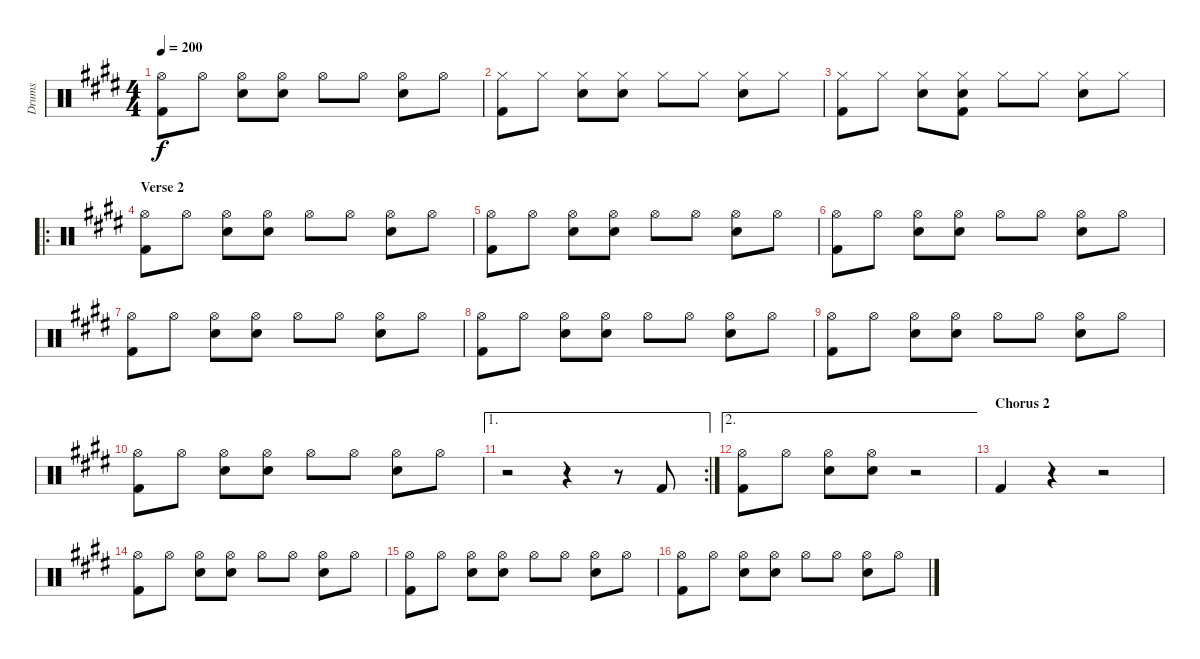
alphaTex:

\track ("Drums" "Drums") {instrument percussion}
\staff {score}
\articulation defaults
\ts (4 4)
\tempo 200
\clef neutral
\ks e
("Hi-Hat (open)" "Kick (hit) 2").8{dy f} "Hi-Hat (open)".8 ("Hi-Hat (open)" "Snare (hit) 2").8 ("Hi-Hat (open)" "Snare (hit) 2").8 "Hi-Hat (open)".8 "Hi-Hat (open)".8 ("Hi-Hat (open)" "Snare (hit) 2").8 "Hi-Hat (open)".8 |
("Hi-Hat (closed)" "Kick (hit) 2").8 "Hi-Hat (closed)".8 ("Hi-Hat (closed)" "Snare (hit) 2").8 ("Hi-Hat (closed)" "Snare (hit) 2").8 "Hi-Hat (closed)".8 "Hi-Hat (closed)".8 ("Hi-Hat (closed)" "Snare (hit) 2").8 "Hi-Hat (closed)".8 |
("Hi-Hat (closed)" "Kick (hit) 2").8 "Hi-Hat (closed)".8 ("Hi-Hat (closed)" "Snare (hit) 2").8 ("Hi-Hat (closed)" "Snare (hit) 2" "Kick (hit) 2").8 "Hi-Hat (closed)".8 "Hi-Hat (closed)".8 ("Hi-Hat (closed)" "Snare (hit) 2").8 "Hi-Hat (closed)".8 |
\ro
\section ("" "Verse 2")
("Hi-Hat (open)" "Kick (hit) 2").8 "Hi-Hat (open)".8 ("Hi-Hat (open)" "Snare (hit) 2").8 ("Hi-Hat (open)" "Snare (hit) 2").8 "Hi-Hat (open)".8 "Hi-Hat (open)".8 ("Hi-Hat (open)" "Snare (hit) 2").8 "Hi-Hat (open)".8 |
("Hi-Hat (open)" "Kick (hit) 2").8 "Hi-Hat (open)".8 ("Hi-Hat (open)" "Snare (hit) 2").8 ("Hi-Hat (open)" "Snare (hit) 2").8 "Hi-Hat (open)".8 "Hi-Hat (open)".8 ("Hi-Hat (open)" "Snare (hit) 2").8 "Hi-Hat (open)".8 |
("Hi-Hat (open)" "Kick (hit) 2").8 "Hi-Hat (open)".8 ("Hi-Hat (open)" "Snare (hit) 2").8 ("Hi-Hat (open)" "Snare (hit) 2").8 "Hi-Hat (open)".8 "Hi-Hat (open)".8 ("Hi-Hat (open)" "Snare (hit) 2").8 "Hi-Hat (open)".8 |
("Hi-Hat (open)" "Kick (hit) 2").8 "Hi-Hat (open)".8 ("Hi-Hat (open)" "Snare (hit) 2").8 ("Hi-Hat (open)" "Snare (hit) 2").8 "Hi-Hat (open)".8 "Hi-Hat (open)".8 ("Hi-Hat (open)" "Snare (hit) 2").8 "Hi-Hat (open)".8 |
("Hi-Hat (open)" "Kick (hit) 2").8 "Hi-Hat (open)".8 ("Hi-Hat (open)" "Snare (hit) 2").8 ("Hi-Hat (open)" "Snare (hit) 2").8 "Hi-Hat (open)".8 "Hi-Hat (open)".8 ("Hi-Hat (open)" "Snare (hit) 2").8 "Hi-Hat (open)".8 |
("Hi-Hat (open)" "Kick (hit) 2").8 "Hi-Hat (open)".8 ("Hi-Hat (open)" "Snare (hit) 2").8 ("Hi-Hat (open)" "Snare (hit) 2").8 "Hi-Hat (open)".8 "Hi-Hat (open)".8 ("Hi-Hat (open)" "Snare (hit) 2").8 "Hi-Hat (open)".8 |
("Hi-Hat (open)" "Kick (hit) 2").8 "Hi-Hat (open)".8 ("Hi-Hat (open)" "Snare (hit) 2").8 ("Hi-Hat (open)" "Snare (hit) 2").8 "Hi-Hat (open)".8 "Hi-Hat (open)".8 ("Hi-Hat (open)" "Snare (hit) 2").8 "Hi-Hat (open)".8 |
\ae 1
\rc 2
r.2 r.4 r.8 "Kick (hit) 2".8 |
\ae 2
("Hi-Hat (open)" "Kick (hit) 2").8 "Hi-Hat (open)".8 ("Hi-Hat (open)" "Snare (hit) 2").8 ("Hi-Hat (open)" "Snare (hit) 2").8 r.2 |
\section ("" "Chorus 2")
"Kick (hit) 2".4 r.4 r.2 |
("Hi-Hat (open)" "Kick (hit) 2").8 "Hi-Hat (open)".8 ("Hi-Hat (open)" "Snare (hit) 2").8 ("Hi-Hat (open)" "Snare (hit) 2").8 "Hi-Hat (open)".8 "Hi-Hat (open)".8 ("Hi-Hat (open)" "Snare (hit) 2").8 "Hi-Hat (open)".8 |
("Hi-Hat (open)" "Kick (hit) 2").8 "Hi-Hat (open)".8 ("Hi-Hat (open)" "Snare (hit) 2").8 ("Hi-Hat (open)" "Snare (hit) 2").8 "Hi-Hat (open)".8 "Hi-Hat (open)".8 ("Hi-Hat (open)" "Snare (hit) 2").8 "Hi-Hat (open)".8 |
("Hi-Hat (open)" "Kick (hit) 2").8 "Hi-Hat (open)".8 ("Hi-Hat (open)" "Snare (hit) 2").8 ("Hi-Hat (open)" "Snare (hit) 2").8 "Hi-Hat (open)".8 "Hi-Hat (open)".8 ("Hi-Hat (open)" "Snare (hit) 2").8 "Hi-Hat (open)".8
